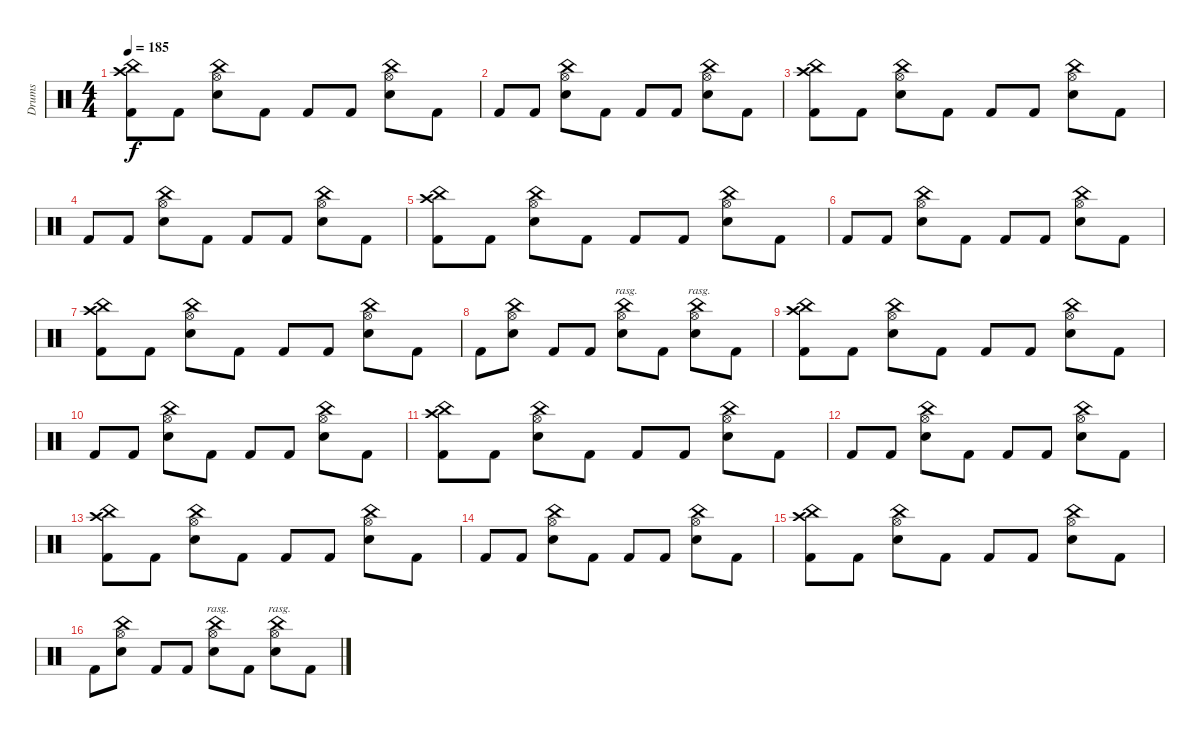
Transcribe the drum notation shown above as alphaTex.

\track ("Drums" "Drums") {instrument percussion}
\staff {score}
\articulation defaults
\ts (4 4)
\tempo 185
\clef neutral
\ks c
("Crash high (hit)" "China (hit)" "Kick (hit) 2").8{dy f} "Kick (hit) 2".8 ("China (hit)" "Hi-Hat (open)" "Snare (hit) 2").8 "Kick (hit) 2".8 "Kick (hit) 2".8 "Kick (hit) 2".8 ("China (hit)" "Hi-Hat (open)" "Snare (hit) 2").8 "Kick (hit) 2".8 |
"Kick (hit) 2".8 "Kick (hit) 2".8 ("China (hit)" "Hi-Hat (open)" "Snare (hit) 2").8 "Kick (hit) 2".8 "Kick (hit) 2".8 "Kick (hit) 2".8 ("China (hit)" "Hi-Hat (open)" "Snare (hit) 2").8 "Kick (hit) 2".8 |
("Crash high (hit)" "China (hit)" "Kick (hit) 2").8 "Kick (hit) 2".8 ("China (hit)" "Hi-Hat (open)" "Snare (hit) 2").8 "Kick (hit) 2".8 "Kick (hit) 2".8 "Kick (hit) 2".8 ("China (hit)" "Hi-Hat (open)" "Snare (hit) 2").8 "Kick (hit) 2".8 |
"Kick (hit) 2".8 "Kick (hit) 2".8 ("China (hit)" "Hi-Hat (open)" "Snare (hit) 2").8 "Kick (hit) 2".8 "Kick (hit) 2".8 "Kick (hit) 2".8 ("China (hit)" "Hi-Hat (open)" "Snare (hit) 2").8 "Kick (hit) 2".8 |
("Crash high (hit)" "China (hit)" "Kick (hit) 2").8 "Kick (hit) 2".8 ("China (hit)" "Hi-Hat (open)" "Snare (hit) 2").8 "Kick (hit) 2".8 "Kick (hit) 2".8 "Kick (hit) 2".8 ("China (hit)" "Hi-Hat (open)" "Snare (hit) 2").8 "Kick (hit) 2".8 |
"Kick (hit) 2".8 "Kick (hit) 2".8 ("China (hit)" "Hi-Hat (open)" "Snare (hit) 2").8 "Kick (hit) 2".8 "Kick (hit) 2".8 "Kick (hit) 2".8 ("China (hit)" "Hi-Hat (open)" "Snare (hit) 2").8 "Kick (hit) 2".8 |
("Crash high (hit)" "China (hit)" "Kick (hit) 2").8 "Kick (hit) 2".8 ("China (hit)" "Hi-Hat (open)" "Snare (hit) 2").8 "Kick (hit) 2".8 "Kick (hit) 2".8 "Kick (hit) 2".8 ("China (hit)" "Hi-Hat (open)" "Snare (hit) 2").8 "Kick (hit) 2".8 |
"Kick (hit) 2".8 ("China (hit)" "Hi-Hat (open)" "Snare (hit) 2").8 "Kick (hit) 2".8 "Kick (hit) 2".8 ("China (hit)" "Hi-Hat (open)" "Snare (hit) 2").8{bd 120 rasg ii} "Kick (hit) 2".8 ("China (hit)" "Hi-Hat (open)" "Snare (hit) 2").8{bd 120 rasg ii} "Kick (hit) 2".8 |
("Crash high (hit)" "China (hit)" "Kick (hit) 2").8 "Kick (hit) 2".8 ("China (hit)" "Hi-Hat (open)" "Snare (hit) 2").8 "Kick (hit) 2".8 "Kick (hit) 2".8 "Kick (hit) 2".8 ("China (hit)" "Hi-Hat (open)" "Snare (hit) 2").8 "Kick (hit) 2".8 |
"Kick (hit) 2".8 "Kick (hit) 2".8 ("China (hit)" "Hi-Hat (open)" "Snare (hit) 2").8 "Kick (hit) 2".8 "Kick (hit) 2".8 "Kick (hit) 2".8 ("China (hit)" "Hi-Hat (open)" "Snare (hit) 2").8 "Kick (hit) 2".8 |
("Crash high (hit)" "China (hit)" "Kick (hit) 2").8 "Kick (hit) 2".8 ("China (hit)" "Hi-Hat (open)" "Snare (hit) 2").8 "Kick (hit) 2".8 "Kick (hit) 2".8 "Kick (hit) 2".8 ("China (hit)" "Hi-Hat (open)" "Snare (hit) 2").8 "Kick (hit) 2".8 |
"Kick (hit) 2".8 "Kick (hit) 2".8 ("China (hit)" "Hi-Hat (open)" "Snare (hit) 2").8 "Kick (hit) 2".8 "Kick (hit) 2".8 "Kick (hit) 2".8 ("China (hit)" "Hi-Hat (open)" "Snare (hit) 2").8 "Kick (hit) 2".8 |
("Crash high (hit)" "China (hit)" "Kick (hit) 2").8 "Kick (hit) 2".8 ("China (hit)" "Hi-Hat (open)" "Snare (hit) 2").8 "Kick (hit) 2".8 "Kick (hit) 2".8 "Kick (hit) 2".8 ("China (hit)" "Hi-Hat (open)" "Snare (hit) 2").8 "Kick (hit) 2".8 |
"Kick (hit) 2".8 "Kick (hit) 2".8 ("China (hit)" "Hi-Hat (open)" "Snare (hit) 2").8 "Kick (hit) 2".8 "Kick (hit) 2".8 "Kick (hit) 2".8 ("China (hit)" "Hi-Hat (open)" "Snare (hit) 2").8 "Kick (hit) 2".8 |
("Crash high (hit)" "China (hit)" "Kick (hit) 2").8 "Kick (hit) 2".8 ("China (hit)" "Hi-Hat (open)" "Snare (hit) 2").8 "Kick (hit) 2".8 "Kick (hit) 2".8 "Kick (hit) 2".8 ("China (hit)" "Hi-Hat (open)" "Snare (hit) 2").8 "Kick (hit) 2".8 |
"Kick (hit) 2".8 ("China (hit)" "Hi-Hat (open)" "Snare (hit) 2").8 "Kick (hit) 2".8 "Kick (hit) 2".8 ("China (hit)" "Hi-Hat (open)" "Snare (hit) 2").8{bd 120 rasg ii} "Kick (hit) 2".8 ("China (hit)" "Hi-Hat (open)" "Snare (hit) 2").8{bd 120 rasg ii} "Kick (hit) 2".8
